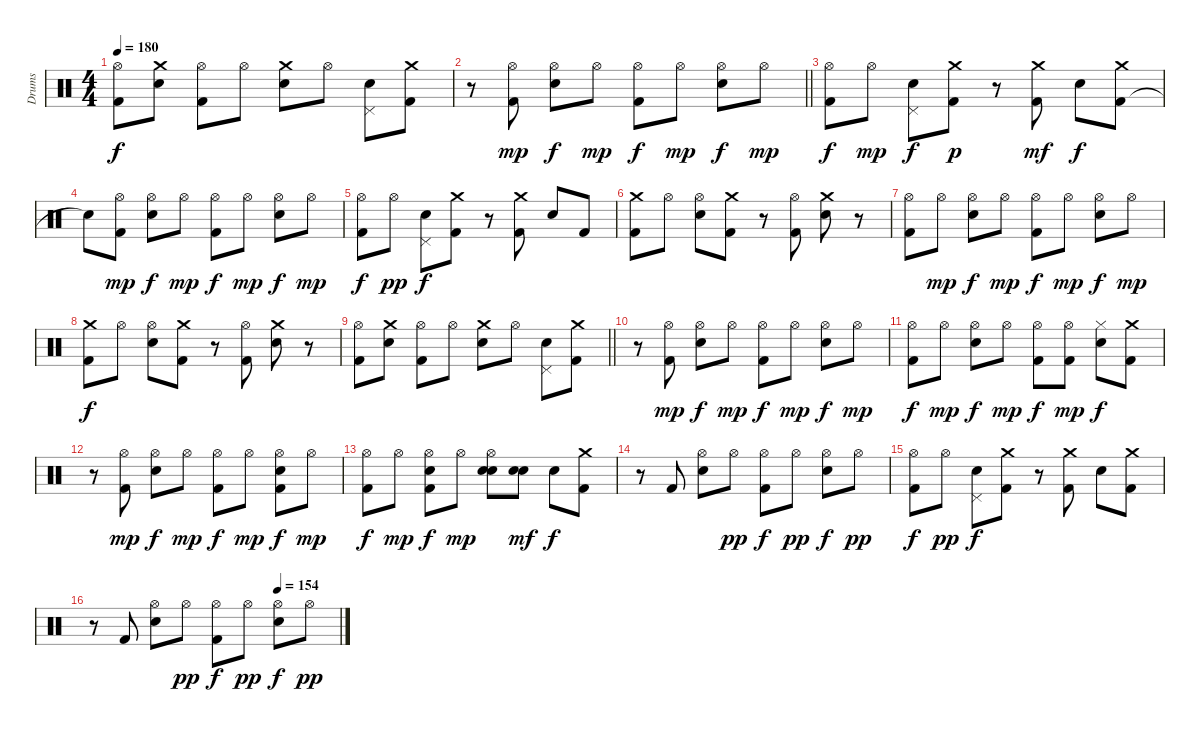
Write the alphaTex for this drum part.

\track ("Drums" "Drums") {instrument percussion}
\staff {score}
\articulation defaults
\ts (4 4)
\tempo 180
\clef neutral
\ks c
("Hi-Hat (open)" "Kick (hit) 2").8{dy f} ("Crash medium (hit)" "Electric Snare (hit)").8 ("Hi-Hat (open)" "Kick (hit) 2").8 "Hi-Hat (open)".8 ("Crash medium (hit)" "Electric Snare (hit)").8 "Hi-Hat (open)".8 ("Pedal Hi-Hat (hit)" "Electric Snare (hit)").8 ("Kick (hit) 2" "Crash medium (hit)").8 |
\barLineRight lightlight
r.8 ("Hi-Hat (open)" "Kick (hit) 2").8{dy mp} ("Hi-Hat (open)" "Electric Snare (hit)").8{dy f} "Hi-Hat (open)".8{dy mp} ("Hi-Hat (open)" "Kick (hit) 2").8{dy f} "Hi-Hat (open)".8{dy mp} ("Hi-Hat (open)" "Electric Snare (hit)").8{dy f} "Hi-Hat (open)".8{dy mp} |
("Hi-Hat (open)" "Kick (hit) 2").8{dy f} "Hi-Hat (open)".8{dy mp} ("Pedal Hi-Hat (hit)" "Electric Snare (hit)").8{dy f} ("Crash medium (hit)" "Kick (hit) 2").8{dy p} r.8 ("Crash medium (hit)" "Kick (hit) 2").8{dy mf} "Electric Snare (hit)".8{dy f} ("Kick (hit) 2" "Crash medium (hit)").8 |
"Snare (hit)"{t}.8 ("Hi-Hat (open)" "Kick (hit) 2").8{dy mp} ("Hi-Hat (open)" "Electric Snare (hit)").8{dy f} "Hi-Hat (open)".8{dy mp} ("Hi-Hat (open)" "Kick (hit) 2").8{dy f} "Hi-Hat (open)".8{dy mp} ("Hi-Hat (open)" "Electric Snare (hit)").8{dy f} "Hi-Hat (open)".8{dy mp} |
("Hi-Hat (open)" "Kick (hit) 2").8{dy f} "Hi-Hat (open)".8{dy pp} ("Pedal Hi-Hat (hit)" "Electric Snare (hit)").8{dy f} ("Crash medium (hit)" "Kick (hit) 2").8 r.8 ("Crash medium (hit)" "Kick (hit) 2").8 "Electric Snare (hit)".8 "Kick (hit) 2".8 |
("Crash medium (hit)" "Kick (hit) 2").8 "Hi-Hat (open)".8 ("Hi-Hat (open)" "Electric Snare (hit)").8 ("Kick (hit) 2" "Crash medium (hit)").8 r.8 ("Hi-Hat (open)" "Kick (hit) 2").8 ("Crash medium (hit)" "Electric Snare (hit)").8 r.8 |
("Hi-Hat (open)" "Kick (hit) 2").8 "Hi-Hat (open)".8{dy mp} ("Hi-Hat (open)" "Electric Snare (hit)").8{dy f} "Hi-Hat (open)".8{dy mp} ("Hi-Hat (open)" "Kick (hit) 2").8{dy f} "Hi-Hat (open)".8{dy mp} ("Hi-Hat (open)" "Electric Snare (hit)").8{dy f} "Hi-Hat (open)".8{dy mp} |
("Crash medium (hit)" "Kick (hit) 2").8{dy f} "Hi-Hat (open)".8 ("Hi-Hat (open)" "Electric Snare (hit)").8 ("Kick (hit) 2" "Crash medium (hit)").8 r.8 ("Hi-Hat (open)" "Kick (hit) 2").8 ("Electric Snare (hit)" "Crash medium (hit)").8 r.8 |
\barLineRight lightlight
("Hi-Hat (open)" "Kick (hit) 2").8 ("Crash medium (hit)" "Electric Snare (hit)").8 ("Hi-Hat (open)" "Kick (hit) 2").8 "Hi-Hat (open)".8 ("Crash medium (hit)" "Electric Snare (hit)").8 "Hi-Hat (open)".8 ("Pedal Hi-Hat (hit)" "Electric Snare (hit)").8 ("Kick (hit) 2" "Crash medium (hit)").8 |
r.8 ("Hi-Hat (open)" "Kick (hit) 2").8{dy mp} ("Hi-Hat (open)" "Electric Snare (hit)").8{dy f} "Hi-Hat (open)".8{dy mp} ("Hi-Hat (open)" "Kick (hit) 2").8{dy f} "Hi-Hat (open)".8{dy mp} ("Hi-Hat (open)" "Electric Snare (hit)").8{dy f} "Hi-Hat (open)".8{dy mp} |
("Hi-Hat (open)" "Kick (hit) 2").8{dy f} "Hi-Hat (open)".8{dy mp} ("Hi-Hat (open)" "Electric Snare (hit)").8{dy f} "Hi-Hat (open)".8{dy mp} ("Hi-Hat (open)" "Kick (hit) 2").8{dy f} ("Hi-Hat (open)" "Kick (hit) 2").8{dy mp} ("Hi-Hat (closed)" "Electric Snare (hit)").8{dy f} ("Kick (hit) 2" "Crash medium (hit)").8 |
r.8 ("Kick (hit) 2" "Hi-Hat (open)").8{dy mp} ("Hi-Hat (open)" "Electric Snare (hit)").8{dy f} "Hi-Hat (open)".8{dy mp} ("Hi-Hat (open)" "Kick (hit) 2").8{dy f} "Hi-Hat (open)".8{dy mp} ("Kick (hit) 2" "Hi-Hat (open)" "Electric Snare (hit)").8{dy f} "Hi-Hat (open)".8{dy mp} |
("Hi-Hat (open)" "Kick (hit) 2").8{dy f} "Hi-Hat (open)".8{dy mp} ("Kick (hit) 2" "Hi-Hat (open)" "Electric Snare (hit)").8{dy f} "Hi-Hat (open)".8{dy mp} ("Electric Snare (hit)" "Hi-Hat (open)" "Electric Snare (hit)").8 ("Electric Snare (hit)" "Electric Snare (hit)").8{dy mf} "Electric Snare (hit)".8{dy f} ("Crash medium (hit)" "Kick (hit) 2").8 |
r.8 "Kick (hit) 2".8 ("Hi-Hat (open)" "Electric Snare (hit)").8 "Hi-Hat (open)".8{dy pp} ("Hi-Hat (open)" "Kick (hit) 2").8{dy f} "Hi-Hat (open)".8{dy pp} ("Hi-Hat (open)" "Electric Snare (hit)").8{dy f} "Hi-Hat (open)".8{dy pp} |
("Hi-Hat (open)" "Kick (hit) 2").8{dy f} "Hi-Hat (open)".8{dy pp} ("Pedal Hi-Hat (hit)" "Electric Snare (hit)").8{dy f} ("Crash medium (hit)" "Kick (hit) 2").8 r.8 ("Crash medium (hit)" "Kick (hit) 2").8 "Electric Snare (hit)".8 ("Crash medium (hit)" "Kick (hit) 2").8 |
\tempo (154 0.75)
r.8 "Kick (hit) 2".8 ("Hi-Hat (open)" "Electric Snare (hit)").8 "Hi-Hat (open)".8{dy pp} ("Hi-Hat (open)" "Kick (hit) 2").8{dy f} "Hi-Hat (open)".8{dy pp} ("Hi-Hat (open)" "Electric Snare (hit)").8{dy f} "Hi-Hat (open)".8{dy pp}
